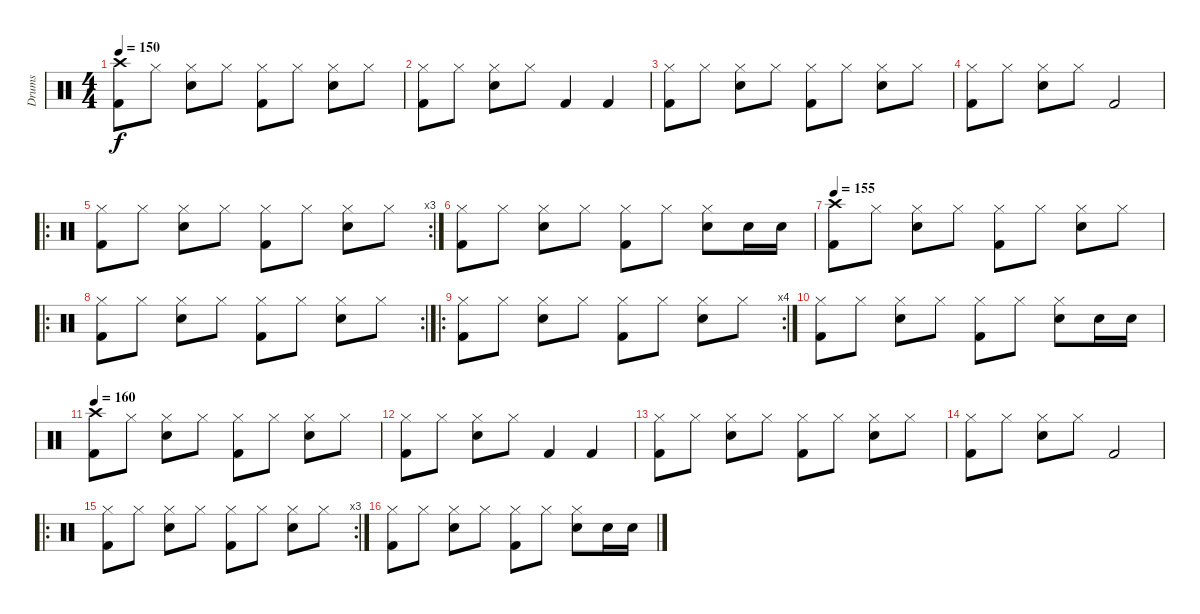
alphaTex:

\track ("Drums" "Drums") {instrument percussion}
\staff {score}
\articulation defaults
\ts (4 4)
\tempo 150
\clef neutral
\ks c
("Crash high (hit)" "Kick (hit) 2").8{dy f} "Hi-Hat (closed)".8 ("Hi-Hat (closed)" "Snare (hit) 2").8 "Hi-Hat (closed)".8 ("Hi-Hat (closed)" "Kick (hit) 2").8 "Hi-Hat (closed)".8 ("Hi-Hat (closed)" "Snare (hit) 2").8 "Hi-Hat (closed)".8 |
("Hi-Hat (closed)" "Kick (hit) 2").8 "Hi-Hat (closed)".8 ("Hi-Hat (closed)" "Snare (hit) 2").8 "Hi-Hat (closed)".8 "Kick (hit) 2".4 "Kick (hit) 2".4 |
("Hi-Hat (closed)" "Kick (hit) 2").8 "Hi-Hat (closed)".8 ("Hi-Hat (closed)" "Snare (hit) 2").8 "Hi-Hat (closed)".8 ("Hi-Hat (closed)" "Kick (hit) 2").8 "Hi-Hat (closed)".8 ("Hi-Hat (closed)" "Snare (hit) 2").8 "Hi-Hat (closed)".8 |
("Hi-Hat (closed)" "Kick (hit) 2").8 "Hi-Hat (closed)".8 ("Hi-Hat (closed)" "Snare (hit) 2").8 "Hi-Hat (closed)".8 "Kick (hit) 2".2 |
\ro
\rc 3
("Hi-Hat (closed)" "Kick (hit) 2").8 "Hi-Hat (closed)".8 ("Hi-Hat (closed)" "Snare (hit) 2").8 "Hi-Hat (closed)".8 ("Hi-Hat (closed)" "Kick (hit) 2").8 "Hi-Hat (closed)".8 ("Hi-Hat (closed)" "Snare (hit) 2").8 "Hi-Hat (closed)".8 |
("Hi-Hat (closed)" "Kick (hit) 2").8 "Hi-Hat (closed)".8 ("Hi-Hat (closed)" "Snare (hit) 2").8 "Hi-Hat (closed)".8 ("Hi-Hat (closed)" "Kick (hit) 2").8 "Hi-Hat (closed)".8 ("Hi-Hat (closed)" "Snare (hit) 2").8 "Snare (hit) 2".16 "Snare (hit) 2".16 |
\tempo 155
("Crash high (hit)" "Kick (hit) 2").8 "Hi-Hat (closed)".8 ("Hi-Hat (closed)" "Snare (hit) 2").8 "Hi-Hat (closed)".8 ("Hi-Hat (closed)" "Kick (hit) 2").8 "Hi-Hat (closed)".8 ("Hi-Hat (closed)" "Snare (hit) 2").8 "Hi-Hat (closed)".8 |
\ro
\rc 2
("Hi-Hat (closed)" "Kick (hit) 2").8 "Hi-Hat (closed)".8 ("Hi-Hat (closed)" "Snare (hit) 2").8 "Hi-Hat (closed)".8 ("Hi-Hat (closed)" "Kick (hit) 2").8 "Hi-Hat (closed)".8 ("Hi-Hat (closed)" "Snare (hit) 2").8 "Hi-Hat (closed)".8 |
\ro
\rc 4
("Hi-Hat (closed)" "Kick (hit) 2").8 "Hi-Hat (closed)".8 ("Hi-Hat (closed)" "Snare (hit) 2").8 "Hi-Hat (closed)".8 ("Hi-Hat (closed)" "Kick (hit) 2").8 "Hi-Hat (closed)".8 ("Hi-Hat (closed)" "Snare (hit) 2").8 "Hi-Hat (closed)".8 |
("Hi-Hat (closed)" "Kick (hit) 2").8 "Hi-Hat (closed)".8 ("Hi-Hat (closed)" "Snare (hit) 2").8 "Hi-Hat (closed)".8 ("Hi-Hat (closed)" "Kick (hit) 2").8 "Hi-Hat (closed)".8 ("Hi-Hat (closed)" "Snare (hit) 2").8 "Snare (hit) 2".16 "Snare (hit) 2".16 |
\tempo 160
("Crash high (hit)" "Kick (hit) 2").8 "Hi-Hat (closed)".8 ("Hi-Hat (closed)" "Snare (hit) 2").8 "Hi-Hat (closed)".8 ("Hi-Hat (closed)" "Kick (hit) 2").8 "Hi-Hat (closed)".8 ("Hi-Hat (closed)" "Snare (hit) 2").8 "Hi-Hat (closed)".8 |
("Hi-Hat (closed)" "Kick (hit) 2").8 "Hi-Hat (closed)".8 ("Hi-Hat (closed)" "Snare (hit) 2").8 "Hi-Hat (closed)".8 "Kick (hit) 2".4 "Kick (hit) 2".4 |
("Hi-Hat (closed)" "Kick (hit) 2").8 "Hi-Hat (closed)".8 ("Hi-Hat (closed)" "Snare (hit) 2").8 "Hi-Hat (closed)".8 ("Hi-Hat (closed)" "Kick (hit) 2").8 "Hi-Hat (closed)".8 ("Hi-Hat (closed)" "Snare (hit) 2").8 "Hi-Hat (closed)".8 |
("Hi-Hat (closed)" "Kick (hit) 2").8 "Hi-Hat (closed)".8 ("Hi-Hat (closed)" "Snare (hit) 2").8 "Hi-Hat (closed)".8 "Kick (hit) 2".2 |
\ro
\rc 3
("Hi-Hat (closed)" "Kick (hit) 2").8 "Hi-Hat (closed)".8 ("Hi-Hat (closed)" "Snare (hit) 2").8 "Hi-Hat (closed)".8 ("Hi-Hat (closed)" "Kick (hit) 2").8 "Hi-Hat (closed)".8 ("Hi-Hat (closed)" "Snare (hit) 2").8 "Hi-Hat (closed)".8 |
("Hi-Hat (closed)" "Kick (hit) 2").8 "Hi-Hat (closed)".8 ("Hi-Hat (closed)" "Snare (hit) 2").8 "Hi-Hat (closed)".8 ("Hi-Hat (closed)" "Kick (hit) 2").8 "Hi-Hat (closed)".8 ("Hi-Hat (closed)" "Snare (hit) 2").8 "Snare (hit) 2".16 "Snare (hit) 2".16
